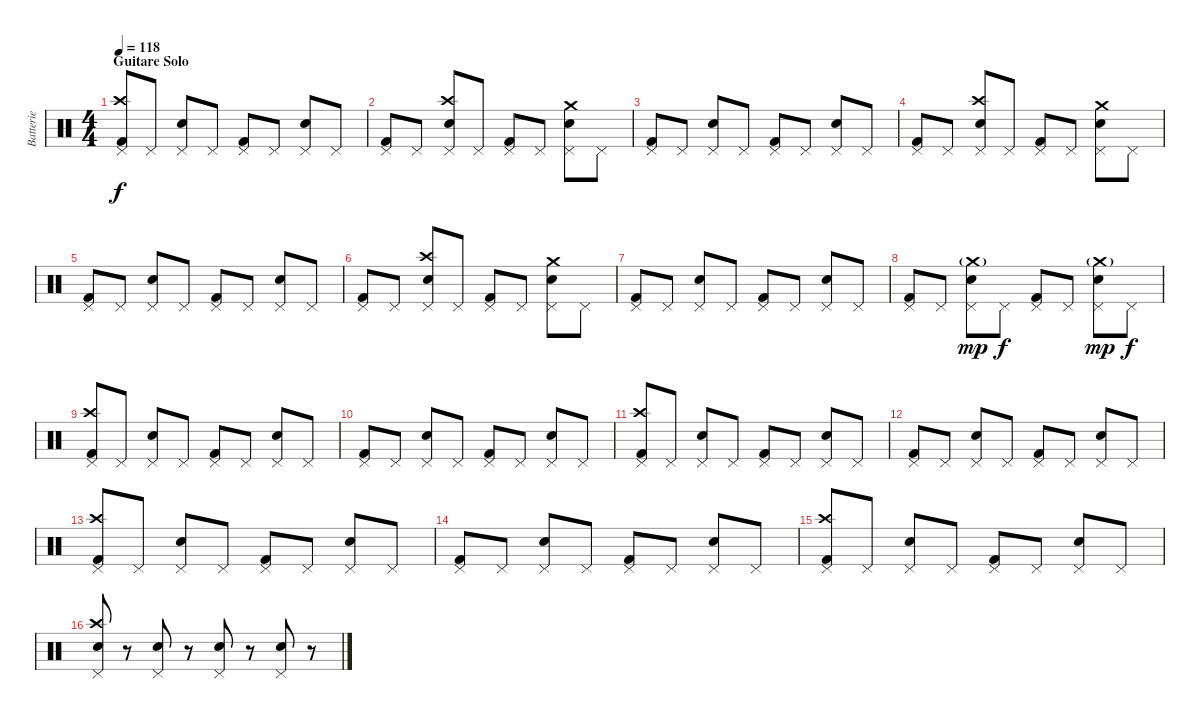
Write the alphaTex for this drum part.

\track ("Batterie" "Batterie") {instrument percussion}
\staff {score}
\articulation defaults
\ts (4 4)
\section ("" "Guitare Solo")
\tempo 118
\clef neutral
\ks c
("Pedal Hi-Hat (hit)" "Crash high (hit)" "Kick (hit) 2").8{dy f} "Pedal Hi-Hat (hit)".8 ("Pedal Hi-Hat (hit)" "Snare (hit) 2").8 "Pedal Hi-Hat (hit)".8 ("Pedal Hi-Hat (hit)" "Kick (hit) 2").8 "Pedal Hi-Hat (hit)".8 ("Pedal Hi-Hat (hit)" "Snare (hit) 2").8 "Pedal Hi-Hat (hit)".8 |
("Pedal Hi-Hat (hit)" "Kick (hit) 2").8 "Pedal Hi-Hat (hit)".8 ("Pedal Hi-Hat (hit)" "Crash high (hit)" "Snare (hit) 2").8 "Pedal Hi-Hat (hit)".8 ("Pedal Hi-Hat (hit)" "Kick (hit) 2").8 "Pedal Hi-Hat (hit)".8 ("Pedal Hi-Hat (hit)" "Crash medium (hit)" "Snare (hit) 2").8 "Pedal Hi-Hat (hit)".8 |
("Pedal Hi-Hat (hit)" "Kick (hit) 2").8 "Pedal Hi-Hat (hit)".8 ("Pedal Hi-Hat (hit)" "Snare (hit) 2").8 "Pedal Hi-Hat (hit)".8 ("Pedal Hi-Hat (hit)" "Kick (hit) 2").8 "Pedal Hi-Hat (hit)".8 ("Pedal Hi-Hat (hit)" "Snare (hit) 2").8 "Pedal Hi-Hat (hit)".8 |
("Pedal Hi-Hat (hit)" "Kick (hit) 2").8 "Pedal Hi-Hat (hit)".8 ("Pedal Hi-Hat (hit)" "Crash high (hit)" "Snare (hit) 2").8 "Pedal Hi-Hat (hit)".8 ("Pedal Hi-Hat (hit)" "Kick (hit) 2").8 "Pedal Hi-Hat (hit)".8 ("Pedal Hi-Hat (hit)" "Crash medium (hit)" "Snare (hit) 2").8 "Pedal Hi-Hat (hit)".8 |
("Pedal Hi-Hat (hit)" "Kick (hit) 2").8 "Pedal Hi-Hat (hit)".8 ("Pedal Hi-Hat (hit)" "Snare (hit) 2").8 "Pedal Hi-Hat (hit)".8 ("Pedal Hi-Hat (hit)" "Kick (hit) 2").8 "Pedal Hi-Hat (hit)".8 ("Pedal Hi-Hat (hit)" "Snare (hit) 2").8 "Pedal Hi-Hat (hit)".8 |
("Pedal Hi-Hat (hit)" "Kick (hit) 2").8 "Pedal Hi-Hat (hit)".8 ("Pedal Hi-Hat (hit)" "Crash high (hit)" "Snare (hit) 2").8 "Pedal Hi-Hat (hit)".8 ("Pedal Hi-Hat (hit)" "Kick (hit) 2").8 "Pedal Hi-Hat (hit)".8 ("Pedal Hi-Hat (hit)" "Crash medium (hit)" "Snare (hit) 2").8 "Pedal Hi-Hat (hit)".8 |
("Pedal Hi-Hat (hit)" "Kick (hit) 2").8 "Pedal Hi-Hat (hit)".8 ("Pedal Hi-Hat (hit)" "Snare (hit) 2").8 "Pedal Hi-Hat (hit)".8 ("Pedal Hi-Hat (hit)" "Kick (hit) 2").8 "Pedal Hi-Hat (hit)".8 ("Pedal Hi-Hat (hit)" "Snare (hit) 2").8 "Pedal Hi-Hat (hit)".8 |
("Pedal Hi-Hat (hit)" "Kick (hit) 2").8 "Pedal Hi-Hat (hit)".8 ("Pedal Hi-Hat (hit)" "Crash medium (hit)"{g} "Snare (hit) 2").8{dy mp} "Pedal Hi-Hat (hit)".8{dy f} ("Pedal Hi-Hat (hit)" "Kick (hit) 2").8 "Pedal Hi-Hat (hit)".8 ("Pedal Hi-Hat (hit)" "Crash medium (hit)"{g} "Snare (hit) 2").8{dy mp} "Pedal Hi-Hat (hit)".8{dy f} |
("Pedal Hi-Hat (hit)" "Crash high (hit)" "Kick (hit) 2").8 "Pedal Hi-Hat (hit)".8 ("Pedal Hi-Hat (hit)" "Snare (hit) 2").8 "Pedal Hi-Hat (hit)".8 ("Pedal Hi-Hat (hit)" "Kick (hit) 2").8 "Pedal Hi-Hat (hit)".8 ("Pedal Hi-Hat (hit)" "Snare (hit) 2").8 "Pedal Hi-Hat (hit)".8 |
("Pedal Hi-Hat (hit)" "Kick (hit) 2").8 "Pedal Hi-Hat (hit)".8 ("Pedal Hi-Hat (hit)" "Snare (hit) 2").8 "Pedal Hi-Hat (hit)".8 ("Pedal Hi-Hat (hit)" "Kick (hit) 2").8 "Pedal Hi-Hat (hit)".8 ("Pedal Hi-Hat (hit)" "Snare (hit) 2").8 "Pedal Hi-Hat (hit)".8 |
("Pedal Hi-Hat (hit)" "Crash high (hit)" "Kick (hit) 2").8 "Pedal Hi-Hat (hit)".8 ("Pedal Hi-Hat (hit)" "Snare (hit) 2").8 "Pedal Hi-Hat (hit)".8 ("Pedal Hi-Hat (hit)" "Kick (hit) 2").8 "Pedal Hi-Hat (hit)".8 ("Pedal Hi-Hat (hit)" "Snare (hit) 2").8 "Pedal Hi-Hat (hit)".8 |
("Pedal Hi-Hat (hit)" "Kick (hit) 2").8 "Pedal Hi-Hat (hit)".8 ("Pedal Hi-Hat (hit)" "Snare (hit) 2").8 "Pedal Hi-Hat (hit)".8 ("Pedal Hi-Hat (hit)" "Kick (hit) 2").8 "Pedal Hi-Hat (hit)".8 ("Pedal Hi-Hat (hit)" "Snare (hit) 2").8 "Pedal Hi-Hat (hit)".8 |
("Pedal Hi-Hat (hit)" "Crash high (hit)" "Kick (hit) 2").8 "Pedal Hi-Hat (hit)".8 ("Pedal Hi-Hat (hit)" "Snare (hit) 2").8 "Pedal Hi-Hat (hit)".8 ("Pedal Hi-Hat (hit)" "Kick (hit) 2").8 "Pedal Hi-Hat (hit)".8 ("Pedal Hi-Hat (hit)" "Snare (hit) 2").8 "Pedal Hi-Hat (hit)".8 |
("Pedal Hi-Hat (hit)" "Kick (hit) 2").8 "Pedal Hi-Hat (hit)".8 ("Pedal Hi-Hat (hit)" "Snare (hit) 2").8 "Pedal Hi-Hat (hit)".8 ("Pedal Hi-Hat (hit)" "Kick (hit) 2").8 "Pedal Hi-Hat (hit)".8 ("Pedal Hi-Hat (hit)" "Snare (hit) 2").8 "Pedal Hi-Hat (hit)".8 |
("Pedal Hi-Hat (hit)" "Crash high (hit)" "Kick (hit) 2").8 "Pedal Hi-Hat (hit)".8 ("Pedal Hi-Hat (hit)" "Snare (hit) 2").8 "Pedal Hi-Hat (hit)".8 ("Pedal Hi-Hat (hit)" "Kick (hit) 2").8 "Pedal Hi-Hat (hit)".8 ("Pedal Hi-Hat (hit)" "Snare (hit) 2").8 "Pedal Hi-Hat (hit)".8 |
("Pedal Hi-Hat (hit)" "Crash high (hit)" "Snare (hit) 2").8 r.8 ("Pedal Hi-Hat (hit)" "Snare (hit) 2").8 r.8 ("Pedal Hi-Hat (hit)" "Snare (hit) 2").8 r.8 ("Pedal Hi-Hat (hit)" "Snare (hit) 2").8 r.8
